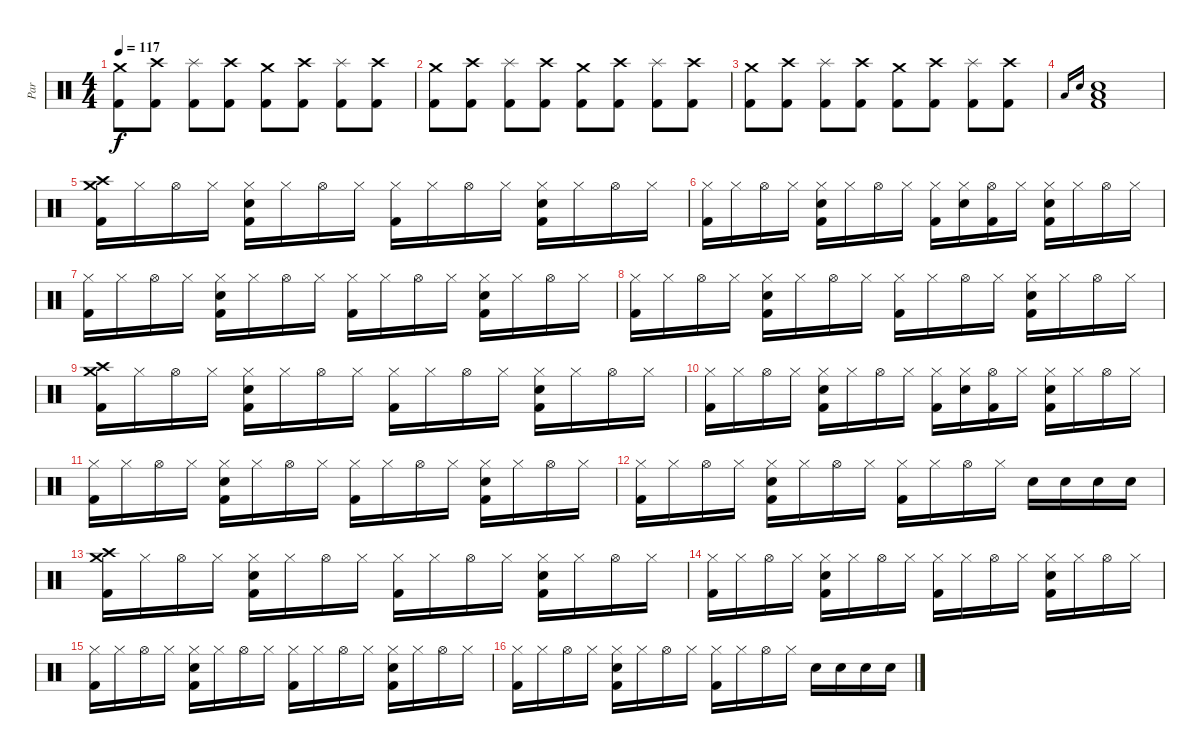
\track ("Par" "Par") {instrument percussion}
\staff {score}
\articulation defaults
\ts (4 4)
\tempo 117
\clef neutral
\ks c
("Crash medium (hit)" "Kick (hit) 2").8{dy f} ("Crash high (hit)" "Kick (hit) 2").8 ("Splash (hit)" "Kick (hit) 2").8 ("Crash high (hit)" "Kick (hit) 2").8 ("Crash medium (hit)" "Kick (hit) 2").8 ("Crash high (hit)" "Kick (hit) 2").8 ("Splash (hit)" "Kick (hit) 2").8 ("Crash high (hit)" "Kick (hit) 2").8 |
("Crash medium (hit)" "Kick (hit) 2").8 ("Crash high (hit)" "Kick (hit) 2").8 ("Splash (hit)" "Kick (hit) 2").8 ("Crash high (hit)" "Kick (hit) 2").8 ("Crash medium (hit)" "Kick (hit) 2").8 ("Crash high (hit)" "Kick (hit) 2").8 ("Splash (hit)" "Kick (hit) 2").8 ("Crash high (hit)" "Kick (hit) 2").8 |
("Crash medium (hit)" "Kick (hit) 2").8 ("Crash high (hit)" "Kick (hit) 2").8 ("Splash (hit)" "Kick (hit) 2").8 ("Crash high (hit)" "Kick (hit) 2").8 ("Crash medium (hit)" "Kick (hit) 2").8 ("Crash high (hit)" "Kick (hit) 2").8 ("Splash (hit)" "Kick (hit) 2").8 ("Crash high (hit)" "Kick (hit) 2").8 |
"Low Floor Tom (hit)".16{gr onbeat} "Snare (hit) 2".16{gr onbeat} ("Low Floor Tom (hit)" "Snare (hit) 2" "Kick (hit) 2").1 |
("Crash medium (hit)" "Crash high (hit)" "Kick (hit) 2").16 "Hi-Hat (closed)".16 "Hi-Hat (open)".16 "Hi-Hat (closed)".16 ("Hi-Hat (closed)" "Snare (hit) 2" "Kick (hit) 2").16 "Hi-Hat (closed)".16 "Hi-Hat (open)".16 "Hi-Hat (closed)".16 ("Hi-Hat (closed)" "Kick (hit) 2").16 "Hi-Hat (closed)".16 "Hi-Hat (open)".16 "Hi-Hat (closed)".16 ("Hi-Hat (closed)" "Snare (hit) 2" "Kick (hit) 2").16 "Hi-Hat (closed)".16 "Hi-Hat (open)".16 "Hi-Hat (closed)".16 |
("Hi-Hat (closed)" "Kick (hit) 2").16 "Hi-Hat (closed)".16 "Hi-Hat (open)".16 "Hi-Hat (closed)".16 ("Hi-Hat (closed)" "Snare (hit) 2" "Kick (hit) 2").16 "Hi-Hat (closed)".16 "Hi-Hat (open)".16 "Hi-Hat (closed)".16 ("Hi-Hat (closed)" "Kick (hit) 2").16 ("Hi-Hat (closed)" "Snare (hit) 2").16 ("Hi-Hat (open)" "Kick (hit) 2").16 "Hi-Hat (closed)".16 ("Hi-Hat (closed)" "Snare (hit) 2" "Kick (hit) 2").16 "Hi-Hat (closed)".16 "Hi-Hat (open)".16 "Hi-Hat (closed)".16 |
("Hi-Hat (closed)" "Kick (hit) 2").16 "Hi-Hat (closed)".16 "Hi-Hat (open)".16 "Hi-Hat (closed)".16 ("Hi-Hat (closed)" "Snare (hit) 2" "Kick (hit) 2").16 "Hi-Hat (closed)".16 "Hi-Hat (open)".16 "Hi-Hat (closed)".16 ("Hi-Hat (closed)" "Kick (hit) 2").16 "Hi-Hat (closed)".16 "Hi-Hat (open)".16 "Hi-Hat (closed)".16 ("Hi-Hat (closed)" "Snare (hit) 2" "Kick (hit) 2").16 "Hi-Hat (closed)".16 "Hi-Hat (open)".16 "Hi-Hat (closed)".16 |
("Hi-Hat (closed)" "Kick (hit) 2").16 "Hi-Hat (closed)".16 "Hi-Hat (open)".16 "Hi-Hat (closed)".16 ("Hi-Hat (closed)" "Snare (hit) 2" "Kick (hit) 2").16 "Hi-Hat (closed)".16 "Hi-Hat (open)".16 "Hi-Hat (closed)".16 ("Hi-Hat (closed)" "Kick (hit) 2").16 "Hi-Hat (closed)".16 "Hi-Hat (open)".16 "Hi-Hat (closed)".16 ("Hi-Hat (closed)" "Snare (hit) 2" "Kick (hit) 2").16 "Hi-Hat (closed)".16 "Hi-Hat (open)".16 "Hi-Hat (closed)".16 |
("Crash medium (hit)" "Crash high (hit)" "Kick (hit) 2").16 "Hi-Hat (closed)".16 "Hi-Hat (open)".16 "Hi-Hat (closed)".16 ("Hi-Hat (closed)" "Snare (hit) 2" "Kick (hit) 2").16 "Hi-Hat (closed)".16 "Hi-Hat (open)".16 "Hi-Hat (closed)".16 ("Hi-Hat (closed)" "Kick (hit) 2").16 "Hi-Hat (closed)".16 "Hi-Hat (open)".16 "Hi-Hat (closed)".16 ("Hi-Hat (closed)" "Snare (hit) 2" "Kick (hit) 2").16 "Hi-Hat (closed)".16 "Hi-Hat (open)".16 "Hi-Hat (closed)".16 |
("Hi-Hat (closed)" "Kick (hit) 2").16 "Hi-Hat (closed)".16 "Hi-Hat (open)".16 "Hi-Hat (closed)".16 ("Hi-Hat (closed)" "Snare (hit) 2" "Kick (hit) 2").16 "Hi-Hat (closed)".16 "Hi-Hat (open)".16 "Hi-Hat (closed)".16 ("Hi-Hat (closed)" "Kick (hit) 2").16 ("Hi-Hat (closed)" "Snare (hit) 2").16 ("Hi-Hat (open)" "Kick (hit) 2").16 "Hi-Hat (closed)".16 ("Hi-Hat (closed)" "Snare (hit) 2" "Kick (hit) 2").16 "Hi-Hat (closed)".16 "Hi-Hat (open)".16 "Hi-Hat (closed)".16 |
("Hi-Hat (closed)" "Kick (hit) 2").16 "Hi-Hat (closed)".16 "Hi-Hat (open)".16 "Hi-Hat (closed)".16 ("Hi-Hat (closed)" "Snare (hit) 2" "Kick (hit) 2").16 "Hi-Hat (closed)".16 "Hi-Hat (open)".16 "Hi-Hat (closed)".16 ("Hi-Hat (closed)" "Kick (hit) 2").16 "Hi-Hat (closed)".16 "Hi-Hat (open)".16 "Hi-Hat (closed)".16 ("Hi-Hat (closed)" "Snare (hit) 2" "Kick (hit) 2").16 "Hi-Hat (closed)".16 "Hi-Hat (open)".16 "Hi-Hat (closed)".16 |
("Hi-Hat (closed)" "Kick (hit) 2").16 "Hi-Hat (closed)".16 "Hi-Hat (open)".16 "Hi-Hat (closed)".16 ("Hi-Hat (closed)" "Snare (hit) 2" "Kick (hit) 2").16 "Hi-Hat (closed)".16 "Hi-Hat (open)".16 "Hi-Hat (closed)".16 ("Hi-Hat (closed)" "Kick (hit) 2").16 "Hi-Hat (closed)".16 "Hi-Hat (open)".16 "Hi-Hat (closed)".16 "Snare (hit) 2".16 "Snare (hit) 2".16 "Snare (hit) 2".16 "Snare (hit) 2".16 |
("Crash medium (hit)" "Crash high (hit)" "Kick (hit) 2").16 "Hi-Hat (closed)".16 "Hi-Hat (open)".16 "Hi-Hat (closed)".16 ("Hi-Hat (closed)" "Snare (hit) 2" "Kick (hit) 2").16 "Hi-Hat (closed)".16 "Hi-Hat (open)".16 "Hi-Hat (closed)".16 ("Hi-Hat (closed)" "Kick (hit) 2").16 "Hi-Hat (closed)".16 "Hi-Hat (open)".16 "Hi-Hat (closed)".16 ("Hi-Hat (closed)" "Snare (hit) 2" "Kick (hit) 2").16 "Hi-Hat (closed)".16 "Hi-Hat (open)".16 "Hi-Hat (closed)".16 |
("Hi-Hat (closed)" "Kick (hit) 2").16 "Hi-Hat (closed)".16 "Hi-Hat (open)".16 "Hi-Hat (closed)".16 ("Hi-Hat (closed)" "Snare (hit) 2" "Kick (hit) 2").16 "Hi-Hat (closed)".16 "Hi-Hat (open)".16 "Hi-Hat (closed)".16 ("Hi-Hat (closed)" "Kick (hit) 2").16 "Hi-Hat (closed)".16 "Hi-Hat (open)".16 "Hi-Hat (closed)".16 ("Hi-Hat (closed)" "Snare (hit) 2" "Kick (hit) 2").16 "Hi-Hat (closed)".16 "Hi-Hat (open)".16 "Hi-Hat (closed)".16 |
("Hi-Hat (closed)" "Kick (hit) 2").16 "Hi-Hat (closed)".16 "Hi-Hat (open)".16 "Hi-Hat (closed)".16 ("Hi-Hat (closed)" "Snare (hit) 2" "Kick (hit) 2").16 "Hi-Hat (closed)".16 "Hi-Hat (open)".16 "Hi-Hat (closed)".16 ("Hi-Hat (closed)" "Kick (hit) 2").16 "Hi-Hat (closed)".16 "Hi-Hat (open)".16 "Hi-Hat (closed)".16 ("Hi-Hat (closed)" "Snare (hit) 2" "Kick (hit) 2").16 "Hi-Hat (closed)".16 "Hi-Hat (open)".16 "Hi-Hat (closed)".16 |
("Hi-Hat (closed)" "Kick (hit) 2").16 "Hi-Hat (closed)".16 "Hi-Hat (open)".16 "Hi-Hat (closed)".16 ("Hi-Hat (closed)" "Snare (hit) 2" "Kick (hit) 2").16 "Hi-Hat (closed)".16 "Hi-Hat (open)".16 "Hi-Hat (closed)".16 ("Hi-Hat (closed)" "Kick (hit) 2").16 "Hi-Hat (closed)".16 "Hi-Hat (open)".16 "Hi-Hat (closed)".16 "Snare (hit) 2".16 "Snare (hit) 2".16 "Snare (hit) 2".16 "Snare (hit) 2".16
